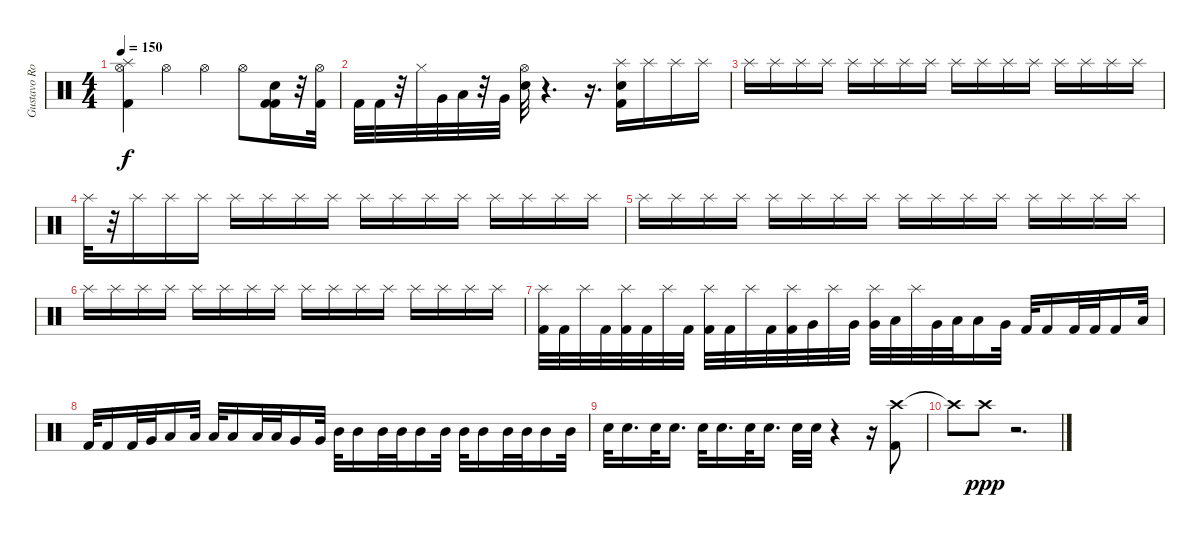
\track ("Gustavo Rowek" "Gustavo Ro") {instrument percussion}
\staff {score}
\articulation defaults
\ts (4 4)
\tempo 150
\clef neutral
\ks c
("Splash (hit)" "Hi-Hat (open)" "Kick (hit) 2").4{dy f} "Hi-Hat (open)".4 "Hi-Hat (open)".4 "Hi-Hat (open)".8 ("Kick (hit) 2" "Electric Snare (hit)" "Kick (hit) 2").16 r.32 ("Hi-Hat (open)" "Kick (hit) 2").32 |
"Kick (hit) 2".32 "Kick (hit) 2".32 r.32 "Hi-Hat (closed)".32 "Very Low Tom (hit)".32 "Low Tom (hit)".32 r.32 "Very Low Tom (hit)".32 ("Hi-Hat (open)" "Electric Snare (hit)").32 r.4{d} r.16{d} ("Splash (hit)" "Electric Snare (hit)" "Kick (hit) 2").16 "Splash (hit)".16 "Splash (hit)".16 "Splash (hit)".16 |
"Splash (hit)".16 "Splash (hit)".16 "Splash (hit)".16 "Splash (hit)".16 "Splash (hit)".16 "Splash (hit)".16 "Splash (hit)".16 "Splash (hit)".16 "Splash (hit)".16 "Splash (hit)".16 "Splash (hit)".16 "Splash (hit)".16 "Splash (hit)".16 "Splash (hit)".16 "Splash (hit)".16 "Splash (hit)".16 |
"Splash (hit)".32 r.32 "Splash (hit)".16 "Splash (hit)".16 "Splash (hit)".16 "Splash (hit)".16 "Splash (hit)".16 "Splash (hit)".16 "Splash (hit)".16 "Splash (hit)".16 "Splash (hit)".16 "Splash (hit)".16 "Splash (hit)".16 "Splash (hit)".16 "Splash (hit)".16 "Splash (hit)".16 "Splash (hit)".16 |
"Splash (hit)".16 "Splash (hit)".16 "Splash (hit)".16 "Splash (hit)".16 "Splash (hit)".16 "Splash (hit)".16 "Splash (hit)".16 "Splash (hit)".16 "Splash (hit)".16 "Splash (hit)".16 "Splash (hit)".16 "Splash (hit)".16 "Splash (hit)".16 "Splash (hit)".16 "Splash (hit)".16 "Splash (hit)".16 |
"Splash (hit)".16 "Splash (hit)".16 "Splash (hit)".16 "Splash (hit)".16 "Splash (hit)".16 "Splash (hit)".16 "Splash (hit)".16 "Splash (hit)".16 "Splash (hit)".16 "Splash (hit)".16 "Splash (hit)".16 "Splash (hit)".16 "Splash (hit)".16 "Splash (hit)".16 "Splash (hit)".16 "Splash (hit)".16 |
("Splash (hit)" "Kick (hit) 2").32 "Kick (hit) 2".32 "Splash (hit)".32 "Kick (hit) 2".32 ("Splash (hit)" "Kick (hit) 2").32 "Kick (hit) 2".32 "Splash (hit)".32 "Kick (hit) 2".32 ("Splash (hit)" "Kick (hit) 2").32 "Kick (hit) 2".32 "Splash (hit)".32 "Kick (hit) 2".32 ("Splash (hit)" "Kick (hit) 2").32 "Very Low Tom (hit)".32 "Splash (hit)".32 "Very Low Tom (hit)".32 ("Splash (hit)" "Very Low Tom (hit)").32 "Low Tom (hit)".32 "Splash (hit)".32 "Very Low Tom (hit)".32 "Low Tom (hit)".32 "Low Tom (hit)".16 "Very Low Tom (hit)".32 "Kick (hit) 2".32 "Kick (hit) 2".16 "Kick (hit) 2".32 "Kick (hit) 2".32 "Kick (hit) 2".16 "Low Tom (hit)".32 |
"Kick (hit) 2".32 "Kick (hit) 2".16 "Kick (hit) 2".32 "Very Low Tom (hit)".32 "Low Tom (hit)".16 "Low Tom (hit)".32 "Low Tom (hit)".32 "Low Tom (hit)".16 "Low Tom (hit)".32 "Low Tom (hit)".32 "Very Low Tom (hit)".16 "Very Low Tom (hit)".32 "Mid Tom (hit)".32 "Mid Tom (hit)".16 "Mid Tom (hit)".32 "Mid Tom (hit)".32 "Mid Tom (hit)".16 "Mid Tom (hit)".32 "Mid Tom (hit)".32 "Mid Tom (hit)".16 "Mid Tom (hit)".32 "Mid Tom (hit)".32 "Mid Tom (hit)".16 "Mid Tom (hit)".32 |
"Electric Snare (hit)".32 "Electric Snare (hit)".16{d} "Electric Snare (hit)".32 "Electric Snare (hit)".16{d} "Electric Snare (hit)".32 "Electric Snare (hit)".16{d} "Electric Snare (hit)".32 "Electric Snare (hit)".16{d} "Electric Snare (hit)".32 "Electric Snare (hit)".32 r.4 r.16 ("Crash high (hit)" "Kick (hit) 2").8 |
"Crash high (hit)"{t}.8 "Crash high (hit)".8{dy ppp} r.2{d}
